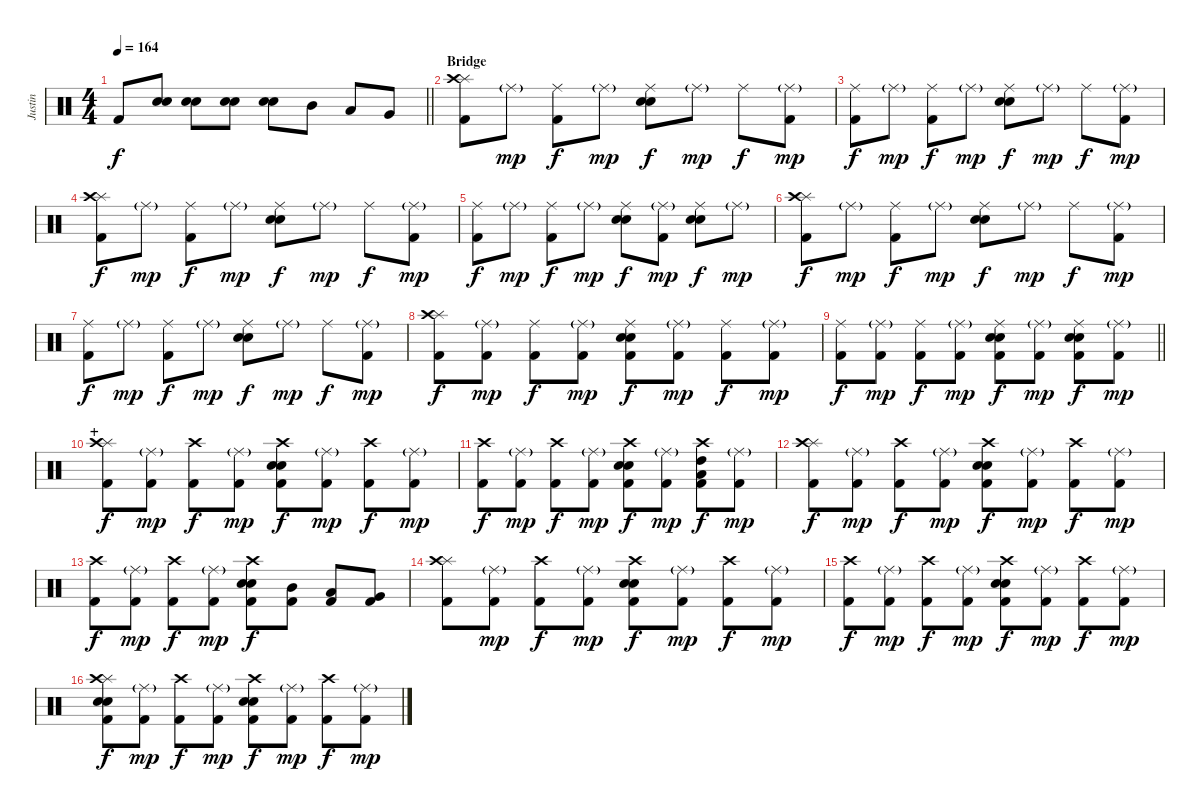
\track ("Justin" "Justin") {instrument percussion}
\staff {score}
\articulation defaults
\ts (4 4)
\tempo 164
\clef neutral
\barLineRight lightlight
\ks c "Kick (hit) 2".8{dy f}
("Electric Snare (hit)" "Snare (hit) 2").8 ("Electric Snare (hit)" "Snare (hit) 2").8 ("Electric Snare (hit)" "Snare (hit) 2").8 ("Electric Snare (hit)" "Snare (hit) 2").8 "Mid Tom (hit)".8 "Low Tom (hit)".8 "Very Low Tom (hit)".8 |
\section ("" "Bridge")
("Splash (hit)" "Crash high (hit)" "Kick (hit) 2").8 "Ride (middle)"{g}.8{dy mp} ("Ride (middle)" "Kick (hit) 2").8{dy f} "Ride (middle)"{g}.8{dy mp} ("Ride (middle)" "Electric Snare (hit)" "Snare (hit) 2").8{dy f} "Ride (middle)"{g}.8{dy mp} "Ride (middle)".8{dy f} ("Ride (middle)"{g} "Kick (hit) 2").8{dy mp} |
("Ride (middle)" "Kick (hit) 2").8{dy f} "Ride (middle)"{g}.8{dy mp} ("Ride (middle)" "Kick (hit) 2").8{dy f} "Ride (middle)"{g}.8{dy mp} ("Ride (middle)" "Electric Snare (hit)" "Snare (hit) 2").8{dy f} "Ride (middle)"{g}.8{dy mp} "Ride (middle)".8{dy f} ("Ride (middle)"{g} "Kick (hit) 2").8{dy mp} |
("Splash (hit)" "Crash high (hit)" "Kick (hit) 2").8{dy f} "Ride (middle)"{g}.8{dy mp} ("Ride (middle)" "Kick (hit) 2").8{dy f} "Ride (middle)"{g}.8{dy mp} ("Ride (middle)" "Electric Snare (hit)" "Snare (hit) 2").8{dy f} "Ride (middle)"{g}.8{dy mp} "Ride (middle)".8{dy f} ("Ride (middle)"{g} "Kick (hit) 2").8{dy mp} |
("Ride (middle)" "Kick (hit) 2").8{dy f} "Ride (middle)"{g}.8{dy mp} ("Ride (middle)" "Kick (hit) 2").8{dy f} "Ride (middle)"{g}.8{dy mp} ("Ride (middle)" "Electric Snare (hit)" "Snare (hit) 2").8{dy f} ("Ride (middle)"{g} "Kick (hit) 2").8{dy mp} ("Ride (middle)" "Electric Snare (hit)" "Snare (hit) 2").8{dy f} "Ride (middle)"{g}.8{dy mp} |
("Splash (hit)" "Crash high (hit)" "Kick (hit) 2").8{dy f} "Ride (middle)"{g}.8{dy mp} ("Ride (middle)" "Kick (hit) 2").8{dy f} "Ride (middle)"{g}.8{dy mp} ("Ride (middle)" "Electric Snare (hit)" "Snare (hit) 2").8{dy f} "Ride (middle)"{g}.8{dy mp} "Ride (middle)".8{dy f} ("Ride (middle)"{g} "Kick (hit) 2").8{dy mp} |
("Ride (middle)" "Kick (hit) 2").8{dy f} "Ride (middle)"{g}.8{dy mp} ("Ride (middle)" "Kick (hit) 2").8{dy f} "Ride (middle)"{g}.8{dy mp} ("Ride (middle)" "Electric Snare (hit)" "Snare (hit) 2").8{dy f} "Ride (middle)"{g}.8{dy mp} "Ride (middle)".8{dy f} ("Ride (middle)"{g} "Kick (hit) 2").8{dy mp} |
("Splash (hit)" "Crash high (hit)" "Kick (hit) 2").8{dy f} ("Ride (middle)"{g} "Kick (hit) 2").8{dy mp} ("Ride (middle)" "Kick (hit) 2").8{dy f} ("Ride (middle)"{g} "Kick (hit) 2").8{dy mp} ("Ride (middle)" "Electric Snare (hit)" "Snare (hit) 2" "Kick (hit) 2").8{dy f} ("Ride (middle)"{g} "Kick (hit) 2").8{dy mp} ("Ride (middle)" "Kick (hit) 2").8{dy f} ("Ride (middle)"{g} "Kick (hit) 2").8{dy mp} |
\barLineRight lightlight
("Ride (middle)" "Kick (hit) 2").8{dy f} ("Ride (middle)"{g} "Kick (hit) 2").8{dy mp} ("Ride (middle)" "Kick (hit) 2").8{dy f} ("Ride (middle)"{g} "Kick (hit) 2").8{dy mp} ("Ride (middle)" "Electric Snare (hit)" "Snare (hit) 2" "Kick (hit) 2").8{dy f} ("Ride (middle)"{g} "Kick (hit) 2").8{dy mp} ("Ride (middle)" "Electric Snare (hit)" "Snare (hit) 2" "Kick (hit) 2").8{dy f} ("Ride (middle)"{g} "Kick (hit) 2").8{dy mp} |
\section ("" "+")
("Splash (hit)" "Crash high (hit)" "Kick (hit) 2").8{dy f} ("Ride (middle)"{g} "Kick (hit) 2").8{dy mp} ("Crash high (hit)" "Kick (hit) 2").8{dy f} ("Ride (middle)"{g} "Kick (hit) 2").8{dy mp} ("Crash high (hit)" "Electric Snare (hit)" "Snare (hit) 2" "Kick (hit) 2").8{dy f} ("Ride (middle)"{g} "Kick (hit) 2").8{dy mp} ("Crash high (hit)" "Kick (hit) 2").8{dy f} ("Ride (middle)"{g} "Kick (hit) 2").8{dy mp} |
("Crash high (hit)" "Kick (hit) 2").8{dy f} ("Ride (middle)"{g} "Kick (hit) 2").8{dy mp} ("Crash high (hit)" "Kick (hit) 2").8{dy f} ("Ride (middle)"{g} "Kick (hit) 2").8{dy mp} ("Crash high (hit)" "Electric Snare (hit)" "Snare (hit) 2" "Kick (hit) 2").8{dy f} ("Ride (middle)"{g} "Kick (hit) 2").8{dy mp} ("Crash high (hit)" "High Tom (hit)" "Low Tom (hit)" "Kick (hit) 2").8{dy f} ("Ride (middle)"{g} "Kick (hit) 2").8{dy mp} |
("Splash (hit)" "Crash high (hit)" "Kick (hit) 2").8{dy f} ("Ride (middle)"{g} "Kick (hit) 2").8{dy mp} ("Crash high (hit)" "Kick (hit) 2").8{dy f} ("Ride (middle)"{g} "Kick (hit) 2").8{dy mp} ("Crash high (hit)" "Electric Snare (hit)" "Snare (hit) 2" "Kick (hit) 2").8{dy f} ("Ride (middle)"{g} "Kick (hit) 2").8{dy mp} ("Crash high (hit)" "Kick (hit) 2").8{dy f} ("Ride (middle)"{g} "Kick (hit) 2").8{dy mp} |
("Crash high (hit)" "Kick (hit) 2").8{dy f} ("Ride (middle)"{g} "Kick (hit) 2").8{dy mp} ("Crash high (hit)" "Kick (hit) 2").8{dy f} ("Ride (middle)"{g} "Kick (hit) 2").8{dy mp} ("Crash high (hit)" "Electric Snare (hit)" "Snare (hit) 2" "Kick (hit) 2").8{dy f} ("Mid Tom (hit)" "Kick (hit) 2").8 ("Low Tom (hit)" "Kick (hit) 2").8 ("Very Low Tom (hit)" "Kick (hit) 2").8 |
("Splash (hit)" "Crash high (hit)" "Kick (hit) 2").8 ("Ride (middle)"{g} "Kick (hit) 2").8{dy mp} ("Crash high (hit)" "Kick (hit) 2").8{dy f} ("Ride (middle)"{g} "Kick (hit) 2").8{dy mp} ("Crash high (hit)" "Electric Snare (hit)" "Snare (hit) 2" "Kick (hit) 2").8{dy f} ("Ride (middle)"{g} "Kick (hit) 2").8{dy mp} ("Crash high (hit)" "Kick (hit) 2").8{dy f} ("Ride (middle)"{g} "Kick (hit) 2").8{dy mp} |
("Crash high (hit)" "Kick (hit) 2").8{dy f} ("Ride (middle)"{g} "Kick (hit) 2").8{dy mp} ("Crash high (hit)" "Kick (hit) 2").8{dy f} ("Ride (middle)"{g} "Kick (hit) 2").8{dy mp} ("Crash high (hit)" "Electric Snare (hit)" "Snare (hit) 2" "Kick (hit) 2").8{dy f} ("Ride (middle)"{g} "Kick (hit) 2").8{dy mp} ("Crash high (hit)" "Kick (hit) 2").8{dy f} ("Ride (middle)"{g} "Kick (hit) 2").8{dy mp} |
("Splash (hit)" "Crash high (hit)" "Electric Snare (hit)" "Snare (hit) 2" "Kick (hit) 2").8{dy f} ("Ride (middle)"{g} "Kick (hit) 2").8{dy mp} ("Crash high (hit)" "Kick (hit) 2").8{dy f} ("Ride (middle)"{g} "Kick (hit) 2").8{dy mp} ("Crash high (hit)" "Electric Snare (hit)" "Snare (hit) 2" "Kick (hit) 2").8{dy f} ("Ride (middle)"{g} "Kick (hit) 2").8{dy mp} ("Crash high (hit)" "Kick (hit) 2").8{dy f} ("Ride (middle)"{g} "Kick (hit) 2").8{dy mp}
